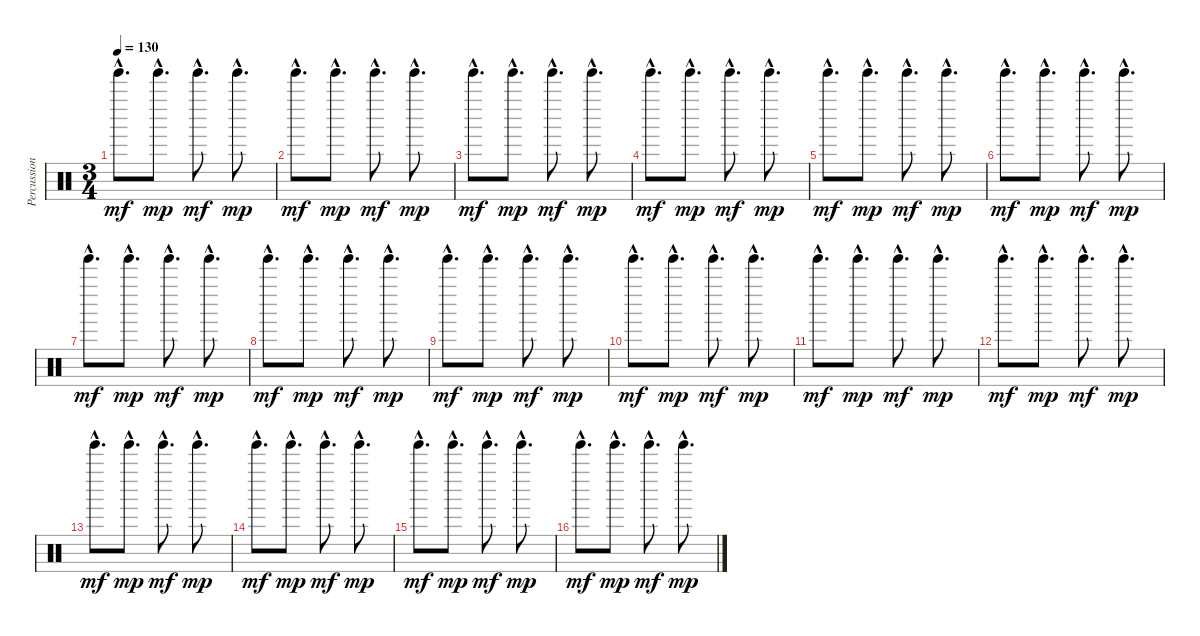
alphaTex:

\track ("Percussion" "Percussion") {instrument percussion}
\staff {score}
\articulation defaults
\ts (3 4)
\tempo 130
\clef neutral
\ks c "Tinkle Bell (hit)"{hac}.8{d dy mf} "Tinkle Bell (hit)"{hac}.8{d dy mp} "Tinkle Bell (hit)"{hac}.8{d dy mf} "Tinkle Bell (hit)"{hac}.8{d dy mp}
|
"Tinkle Bell (hit)"{hac}.8{d dy mf} "Tinkle Bell (hit)"{hac}.8{d dy mp} "Tinkle Bell (hit)"{hac}.8{d dy mf} "Tinkle Bell (hit)"{hac}.8{d dy mp} |
"Tinkle Bell (hit)"{hac}.8{d dy mf} "Tinkle Bell (hit)"{hac}.8{d dy mp} "Tinkle Bell (hit)"{hac}.8{d dy mf} "Tinkle Bell (hit)"{hac}.8{d dy mp} |
"Tinkle Bell (hit)"{hac}.8{d dy mf} "Tinkle Bell (hit)"{hac}.8{d dy mp} "Tinkle Bell (hit)"{hac}.8{d dy mf} "Tinkle Bell (hit)"{hac}.8{d dy mp} |
"Tinkle Bell (hit)"{hac}.8{d dy mf} "Tinkle Bell (hit)"{hac}.8{d dy mp} "Tinkle Bell (hit)"{hac}.8{d dy mf} "Tinkle Bell (hit)"{hac}.8{d dy mp} |
"Tinkle Bell (hit)"{hac}.8{d dy mf} "Tinkle Bell (hit)"{hac}.8{d dy mp} "Tinkle Bell (hit)"{hac}.8{d dy mf} "Tinkle Bell (hit)"{hac}.8{d dy mp} |
"Tinkle Bell (hit)"{hac}.8{d dy mf} "Tinkle Bell (hit)"{hac}.8{d dy mp} "Tinkle Bell (hit)"{hac}.8{d dy mf} "Tinkle Bell (hit)"{hac}.8{d dy mp} |
"Tinkle Bell (hit)"{hac}.8{d dy mf} "Tinkle Bell (hit)"{hac}.8{d dy mp} "Tinkle Bell (hit)"{hac}.8{d dy mf} "Tinkle Bell (hit)"{hac}.8{d dy mp} |
"Tinkle Bell (hit)"{hac}.8{d dy mf} "Tinkle Bell (hit)"{hac}.8{d dy mp} "Tinkle Bell (hit)"{hac}.8{d dy mf} "Tinkle Bell (hit)"{hac}.8{d dy mp} |
"Tinkle Bell (hit)"{hac}.8{d dy mf} "Tinkle Bell (hit)"{hac}.8{d dy mp} "Tinkle Bell (hit)"{hac}.8{d dy mf} "Tinkle Bell (hit)"{hac}.8{d dy mp} |
"Tinkle Bell (hit)"{hac}.8{d dy mf} "Tinkle Bell (hit)"{hac}.8{d dy mp} "Tinkle Bell (hit)"{hac}.8{d dy mf} "Tinkle Bell (hit)"{hac}.8{d dy mp} |
"Tinkle Bell (hit)"{hac}.8{d dy mf} "Tinkle Bell (hit)"{hac}.8{d dy mp} "Tinkle Bell (hit)"{hac}.8{d dy mf} "Tinkle Bell (hit)"{hac}.8{d dy mp} |
"Tinkle Bell (hit)"{hac}.8{d dy mf volume 16} "Tinkle Bell (hit)"{hac}.8{d dy mp volume 15} "Tinkle Bell (hit)"{hac}.8{d dy mf volume 14} "Tinkle Bell (hit)"{hac}.8{d dy mp volume 14} |
"Tinkle Bell (hit)"{hac}.8{d dy mf volume 13} "Tinkle Bell (hit)"{hac}.8{d dy mp volume 12} "Tinkle Bell (hit)"{hac}.8{d dy mf volume 11} "Tinkle Bell (hit)"{hac}.8{d dy mp volume 11} |
"Tinkle Bell (hit)"{hac}.8{d dy mf volume 10} "Tinkle Bell (hit)"{hac}.8{d dy mp volume 9} "Tinkle Bell (hit)"{hac}.8{d dy mf volume 8} "Tinkle Bell (hit)"{hac}.8{d dy mp volume 8} |
"Tinkle Bell (hit)"{hac}.8{d dy mf volume 7} "Tinkle Bell (hit)"{hac}.8{d dy mp volume 7} "Tinkle Bell (hit)"{hac}.8{d dy mf volume 6} "Tinkle Bell (hit)"{hac}.8{d dy mp volume 6}
